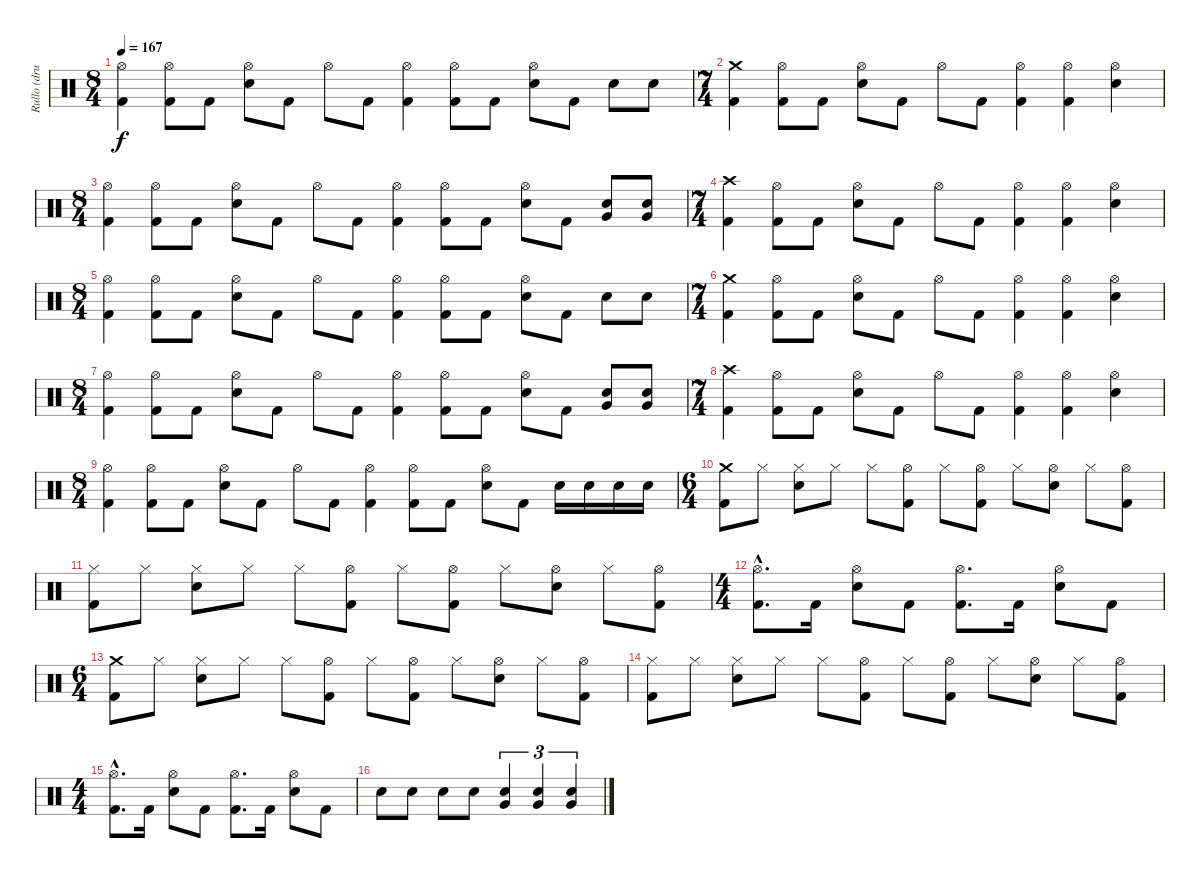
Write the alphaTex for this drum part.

\track ("Rullo (drums)" "Rullo (dru") {instrument percussion}
\staff {score}
\articulation defaults
\ts (8 4)
\tempo 167
\clef neutral
\ks c
("Hi-Hat (open)" "Kick (hit) 2").4{dy f} ("Hi-Hat (open)" "Kick (hit) 2").8 "Kick (hit) 2".8 ("Hi-Hat (open)" "Electric Snare (hit)").8 "Kick (hit) 2".8 "Hi-Hat (open)".8 "Kick (hit) 2".8 ("Hi-Hat (open)" "Kick (hit) 2").4 ("Hi-Hat (open)" "Kick (hit) 2").8 "Kick (hit) 2".8 ("Hi-Hat (open)" "Electric Snare (hit)").8 "Kick (hit) 2".8 "Electric Snare (hit)".8 "Electric Snare (hit)".8 |
\ts (7 4)
("Crash medium (hit)" "Kick (hit) 2").4 ("Hi-Hat (open)" "Kick (hit) 2").8 "Kick (hit) 2".8 ("Hi-Hat (open)" "Electric Snare (hit)").8 "Kick (hit) 2".8 "Hi-Hat (open)".8 "Kick (hit) 2".8 ("Hi-Hat (open)" "Kick (hit) 2").4 ("Hi-Hat (open)" "Kick (hit) 2").4 ("Hi-Hat (open)" "Electric Snare (hit)").4 |
\ts (8 4)
("Hi-Hat (open)" "Kick (hit) 2").4 ("Hi-Hat (open)" "Kick (hit) 2").8 "Kick (hit) 2".8 ("Hi-Hat (open)" "Electric Snare (hit)").8 "Kick (hit) 2".8 "Hi-Hat (open)".8 "Kick (hit) 2".8 ("Hi-Hat (open)" "Kick (hit) 2").4 ("Hi-Hat (open)" "Kick (hit) 2").8 "Kick (hit) 2".8 ("Hi-Hat (open)" "Electric Snare (hit)").8 "Kick (hit) 2".8 ("Very Low Tom (hit)" "Electric Snare (hit)").8 ("Very Low Tom (hit)" "Electric Snare (hit)").8 |
\ts (7 4)
("Crash high (hit)" "Kick (hit) 2").4 ("Hi-Hat (open)" "Kick (hit) 2").8 "Kick (hit) 2".8 ("Hi-Hat (open)" "Electric Snare (hit)").8 "Kick (hit) 2".8 "Hi-Hat (open)".8 "Kick (hit) 2".8 ("Hi-Hat (open)" "Kick (hit) 2").4 ("Hi-Hat (open)" "Kick (hit) 2").4 ("Hi-Hat (open)" "Electric Snare (hit)").4 |
\ts (8 4)
("Hi-Hat (open)" "Kick (hit) 2").4 ("Hi-Hat (open)" "Kick (hit) 2").8 "Kick (hit) 2".8 ("Hi-Hat (open)" "Electric Snare (hit)").8 "Kick (hit) 2".8 "Hi-Hat (open)".8 "Kick (hit) 2".8 ("Hi-Hat (open)" "Kick (hit) 2").4 ("Hi-Hat (open)" "Kick (hit) 2").8 "Kick (hit) 2".8 ("Hi-Hat (open)" "Electric Snare (hit)").8 "Kick (hit) 2".8 "Electric Snare (hit)".8 "Electric Snare (hit)".8 |
\ts (7 4)
("Crash medium (hit)" "Kick (hit) 2").4 ("Hi-Hat (open)" "Kick (hit) 2").8 "Kick (hit) 2".8 ("Hi-Hat (open)" "Electric Snare (hit)").8 "Kick (hit) 2".8 "Hi-Hat (open)".8 "Kick (hit) 2".8 ("Hi-Hat (open)" "Kick (hit) 2").4 ("Hi-Hat (open)" "Kick (hit) 2").4 ("Hi-Hat (open)" "Electric Snare (hit)").4 |
\ts (8 4)
("Hi-Hat (open)" "Kick (hit) 2").4 ("Hi-Hat (open)" "Kick (hit) 2").8 "Kick (hit) 2".8 ("Hi-Hat (open)" "Electric Snare (hit)").8 "Kick (hit) 2".8 "Hi-Hat (open)".8 "Kick (hit) 2".8 ("Hi-Hat (open)" "Kick (hit) 2").4 ("Hi-Hat (open)" "Kick (hit) 2").8 "Kick (hit) 2".8 ("Hi-Hat (open)" "Electric Snare (hit)").8 "Kick (hit) 2".8 ("Very Low Tom (hit)" "Electric Snare (hit)").8 ("Very Low Tom (hit)" "Electric Snare (hit)").8 |
\ts (7 4)
("Crash high (hit)" "Kick (hit) 2").4 ("Hi-Hat (open)" "Kick (hit) 2").8 "Kick (hit) 2".8 ("Hi-Hat (open)" "Electric Snare (hit)").8 "Kick (hit) 2".8 "Hi-Hat (open)".8 "Kick (hit) 2".8 ("Hi-Hat (open)" "Kick (hit) 2").4 ("Hi-Hat (open)" "Kick (hit) 2").4 ("Hi-Hat (open)" "Electric Snare (hit)").4 |
\ts (8 4)
("Hi-Hat (open)" "Kick (hit) 2").4 ("Hi-Hat (open)" "Kick (hit) 2").8 "Kick (hit) 2".8 ("Hi-Hat (open)" "Electric Snare (hit)").8 "Kick (hit) 2".8 "Hi-Hat (open)".8 "Kick (hit) 2".8 ("Hi-Hat (open)" "Kick (hit) 2").4 ("Hi-Hat (open)" "Kick (hit) 2").8 "Kick (hit) 2".8 ("Hi-Hat (open)" "Electric Snare (hit)").8 "Kick (hit) 2".8 "Electric Snare (hit)".16 "Electric Snare (hit)".16 "Electric Snare (hit)".16 "Electric Snare (hit)".16 |
\ts (6 4)
("Crash medium (hit)" "Kick (hit) 2").8 "Hi-Hat (closed)".8 ("Hi-Hat (closed)" "Electric Snare (hit)").8 "Hi-Hat (closed)".8 "Hi-Hat (closed)".8 ("Hi-Hat (open)" "Kick (hit) 2").8 "Hi-Hat (closed)".8 ("Hi-Hat (open)" "Kick (hit) 2").8 "Hi-Hat (closed)".8 ("Hi-Hat (open)" "Electric Snare (hit)").8 "Hi-Hat (closed)".8 ("Hi-Hat (open)" "Kick (hit) 2").8 |
("Hi-Hat (closed)" "Kick (hit) 2").8 "Hi-Hat (closed)".8 ("Hi-Hat (closed)" "Electric Snare (hit)").8 "Hi-Hat (closed)".8 "Hi-Hat (closed)".8 ("Hi-Hat (open)" "Kick (hit) 2").8 "Hi-Hat (closed)".8 ("Hi-Hat (open)" "Kick (hit) 2").8 "Hi-Hat (closed)".8 ("Hi-Hat (open)" "Electric Snare (hit)").8 "Hi-Hat (closed)".8 ("Hi-Hat (open)" "Kick (hit) 2").8 |
\ts (4 4)
("Hi-Hat (open)" "Kick (hit) 2"{hac}).8{d} "Kick (hit) 2".16 ("Hi-Hat (open)" "Electric Snare (hit)").8 "Kick (hit) 2".8 ("Hi-Hat (open)" "Kick (hit) 2").8{d} "Kick (hit) 2".16 ("Hi-Hat (open)" "Electric Snare (hit)").8 "Kick (hit) 2".8 |
\ts (6 4)
("Crash medium (hit)" "Kick (hit) 2").8 "Hi-Hat (closed)".8 ("Hi-Hat (closed)" "Electric Snare (hit)").8 "Hi-Hat (closed)".8 "Hi-Hat (closed)".8 ("Hi-Hat (open)" "Kick (hit) 2").8 "Hi-Hat (closed)".8 ("Hi-Hat (open)" "Kick (hit) 2").8 "Hi-Hat (closed)".8 ("Hi-Hat (open)" "Electric Snare (hit)").8 "Hi-Hat (closed)".8 ("Hi-Hat (open)" "Kick (hit) 2").8 |
("Hi-Hat (closed)" "Kick (hit) 2").8 "Hi-Hat (closed)".8 ("Hi-Hat (closed)" "Electric Snare (hit)").8 "Hi-Hat (closed)".8 "Hi-Hat (closed)".8 ("Hi-Hat (open)" "Kick (hit) 2").8 "Hi-Hat (closed)".8 ("Hi-Hat (open)" "Kick (hit) 2").8 "Hi-Hat (closed)".8 ("Hi-Hat (open)" "Electric Snare (hit)").8 "Hi-Hat (closed)".8 ("Hi-Hat (open)" "Kick (hit) 2").8 |
\ts (4 4)
("Hi-Hat (open)" "Kick (hit) 2"{hac}).8{d} "Kick (hit) 2".16 ("Hi-Hat (open)" "Electric Snare (hit)").8 "Kick (hit) 2".8 ("Hi-Hat (open)" "Kick (hit) 2").8{d} "Kick (hit) 2".16 ("Hi-Hat (open)" "Electric Snare (hit)").8 "Kick (hit) 2".8 |
"Electric Snare (hit)".8 "Electric Snare (hit)".8 "Electric Snare (hit)".8 "Electric Snare (hit)".8 ("Very Low Tom (hit)" "Electric Snare (hit)").4{tu (3 2)} ("Very Low Tom (hit)" "Electric Snare (hit)").4{tu (3 2)} ("Very Low Tom (hit)" "Electric Snare (hit)").4{tu (3 2)}
